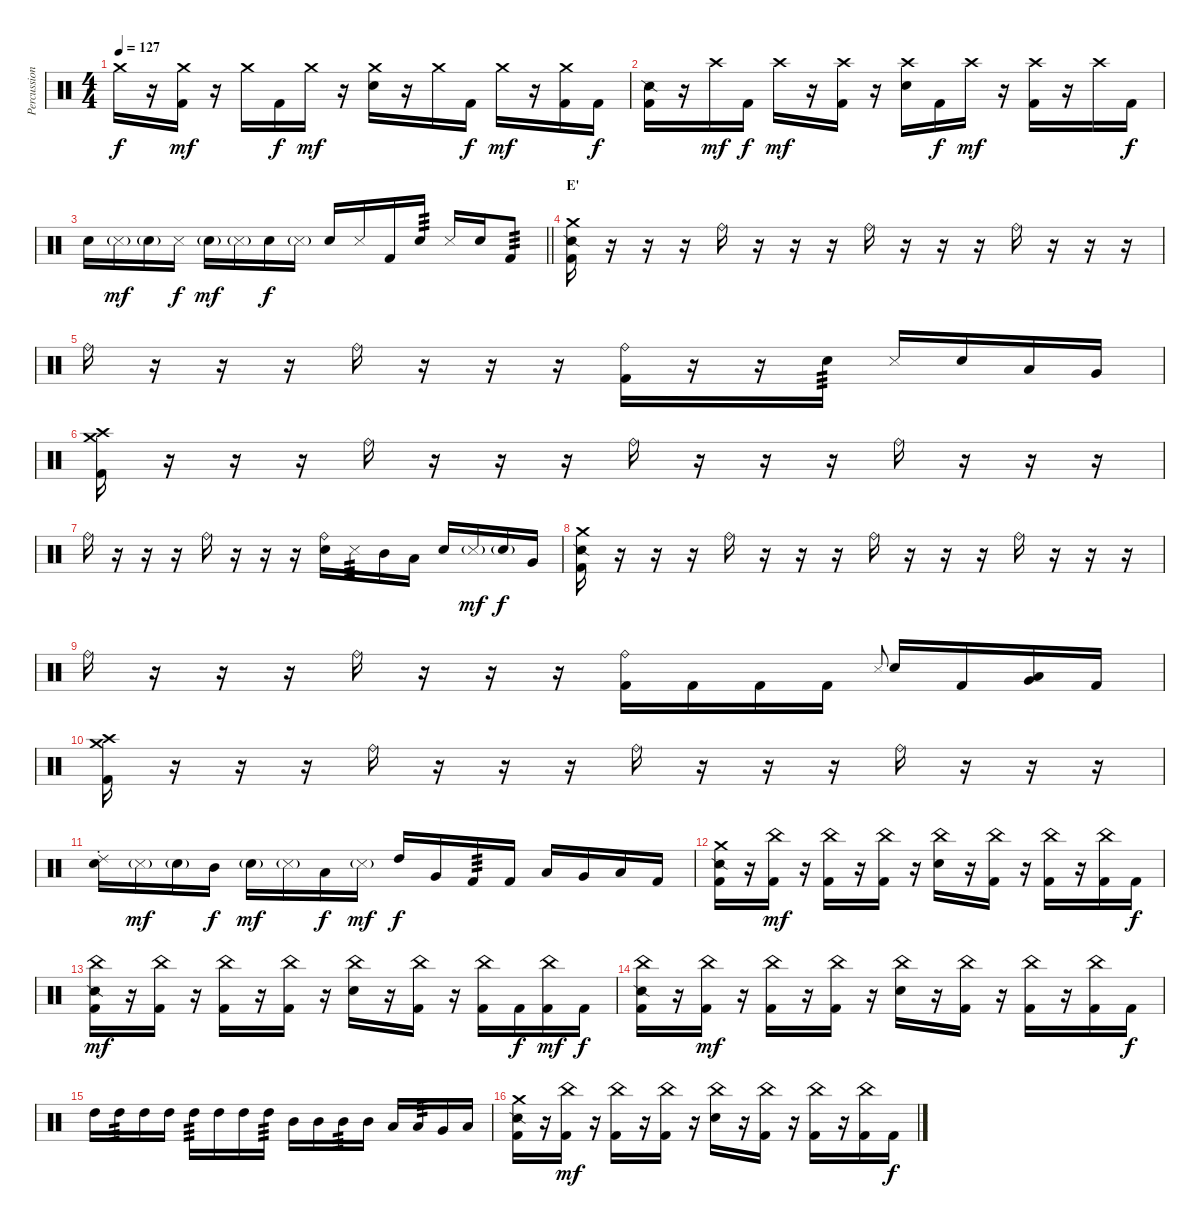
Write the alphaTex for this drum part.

\track ("Percussion" "Percussion") {instrument percussion}
\staff {score}
\articulation defaults
\ts (4 4)
\tempo 127
\clef neutral
\ks c "Crash medium (hit)".16{dy f}
r.16 ("Crash medium (hit)" "Kick (hit) 2").16{dy mf} r.16 "Crash medium (hit)".16 "Kick (hit) 2".16{dy f} "Crash medium (hit)".16{dy mf} r.16 ("Crash medium (hit)" "Snare (hit) 2").16 r.16 "Crash medium (hit)".16 "Kick (hit) 2".16{dy f} "Crash medium (hit)".16{dy mf} r.16 ("Crash medium (hit)" "Kick (hit) 2").16 "Kick (hit) 2".16{dy f} |
("Snare (side stick) 2" "Kick (hit) 2").16 r.16 "Crash high (hit)".16{dy mf} "Kick (hit) 2".16{dy f} "Crash high (hit)".16{dy mf} r.16 ("Crash high (hit)" "Kick (hit) 2").16 r.16 ("Crash high (hit)" "Snare (hit) 2").16 "Kick (hit) 2".16{dy f} "Crash high (hit)".16{dy mf} r.16 ("Crash high (hit)" "Kick (hit) 2").16 r.16 "Crash high (hit)".16 "Kick (hit) 2".16{dy f} |
\barLineRight lightlight "Snare (hit) 2".16 "Metronome (hit)"{g}.16{dy mf} "Snare (hit) 2"{g}.16 "Metronome (hit)".16{dy f} "Snare (hit) 2"{g}.16{dy mf} "Metronome (hit)"{g}.16 "Snare (hit) 2".16{dy f} "Metronome (hit)"{g}.16 "Snare (hit) 2".16 "Metronome (hit)".16 "Kick (hit) 2".16 "Snare (hit) 2".16{tp 3} "Metronome (hit)".16 "Snare (hit) 2".16 "Kick (hit) 2".8{tp 3}
|
\section ("" "E'")
("Snare (side stick) 2" "Crash medium (hit)" "Kick (hit) 2").16 r.16 r.16 r.16 "Ride (bell)".16 r.16 r.16 r.16 "Ride (bell)".16 r.16 r.16 r.16 "Ride (bell)".16 r.16 r.16 r.16 |
"Ride (bell)".16 r.16 r.16 r.16 "Ride (bell)".16 r.16 r.16 r.16 ("Ride (bell)" "Kick (hit) 2").16 r.16 r.16 "Snare (hit) 2".16{tp 3} "Metronome (hit)".16 "Snare (hit) 2".16 "Low Tom (hit)".16 "Very Low Tom (hit)".16 |
("Crash high (hit)" "Crash medium (hit)" "Kick (hit) 2").16 r.16 r.16 r.16 "Ride (bell)".16 r.16 r.16 r.16 "Ride (bell)".16 r.16 r.16 r.16 "Ride (bell)".16 r.16 r.16 r.16 |
"Ride (bell)".16 r.16 r.16 r.16 "Ride (bell)".16 r.16 r.16 r.16 ("Ride (bell)" "Snare (hit) 2").16 "Metronome (hit)".16{tp 3} "Mid Tom (hit)".16 "Low Tom (hit)".16 "Snare (hit) 2".16 "Metronome (hit)"{g}.16{dy mf} "Snare (hit) 2"{g}.16{dy f} "Very Low Tom (hit)".16 |
("Snare (side stick) 2" "Crash medium (hit)" "Kick (hit) 2").16 r.16 r.16 r.16 "Ride (bell)".16 r.16 r.16 r.16 "Ride (bell)".16 r.16 r.16 r.16 "Ride (bell)".16 r.16 r.16 r.16 |
"Ride (bell)".16 r.16 r.16 r.16 "Ride (bell)".16 r.16 r.16 r.16 ("Ride (bell)" "Kick (hit) 2").16 "Kick (hit) 2".16 "Kick (hit) 2".16 "Kick (hit) 2".16 "Metronome (hit)".8{gr onbeat} "Snare (hit) 2".16 "Kick (hit) 2".16 ("Low Tom (hit)" "Very Low Tom (hit)").16{bu 60} "Kick (hit) 2".16 |
("Crash high (hit)" "Crash medium (hit)" "Kick (hit) 2").16 r.16 r.16 r.16 "Ride (bell)".16 r.16 r.16 r.16 "Ride (bell)".16 r.16 r.16 r.16 "Ride (bell)".16 r.16 r.16 r.16 |
("Ride (choke) 2" "Snare (hit) 2").16 "Metronome (hit)"{g}.16{dy mf} "Snare (hit) 2"{g}.16 "Mid Tom (hit)".16{dy f} "Snare (hit) 2"{g}.16{dy mf} "Metronome (hit)"{g}.16 "Low Tom (hit)".16{dy f} "Metronome (hit)"{g}.16{dy mf} "High Tom (hit)".16{dy f} "Very Low Tom (hit)".16 "Kick (hit) 2".16{tp 3} "Kick (hit) 2".16 "Low Tom (hit)".16 "Very Low Tom (hit)".16 "Low Floor Tom (hit)".16 "Kick (hit) 2".16 |
("Snare (side stick) 2" "Crash medium (hit)" "Kick (hit) 2").16 r.16 ("China (hit)" "Kick (hit) 2").16{dy mf} r.16 ("China (hit)" "Kick (hit) 2").16 r.16 ("China (hit)" "Kick (hit) 2").16 r.16 ("China (hit)" "Snare (hit) 2").16 r.16 ("China (hit)" "Kick (hit) 2").16 r.16 ("China (hit)" "Kick (hit) 2").16 r.16 ("China (hit)" "Kick (hit) 2").16 "Kick (hit) 2".16{dy f} |
("China (hit)" "Snare (side stick) 2" "Kick (hit) 2").16{dy mf} r.16 ("China (hit)" "Kick (hit) 2").16 r.16 ("China (hit)" "Kick (hit) 2").16 r.16 ("China (hit)" "Kick (hit) 2").16 r.16 ("China (hit)" "Snare (hit) 2").16 r.16 ("China (hit)" "Kick (hit) 2").16 r.16 ("China (hit)" "Kick (hit) 2").16 "Kick (hit) 2".16{dy f} ("China (hit)" "Kick (hit) 2").16{dy mf} "Kick (hit) 2".16{dy f} |
("Snare (side stick) 2" "China (hit)" "Kick (hit) 2").16 r.16 ("China (hit)" "Kick (hit) 2").16{dy mf} r.16 ("China (hit)" "Kick (hit) 2").16 r.16 ("China (hit)" "Kick (hit) 2").16 r.16 ("China (hit)" "Snare (hit) 2").16 r.16 ("China (hit)" "Kick (hit) 2").16 r.16 ("China (hit)" "Kick (hit) 2").16 r.16 ("China (hit)" "Kick (hit) 2").16 "Kick (hit) 2".16{dy f} |
"High Tom (hit)".16 "High Tom (hit)".16{tp 3} "High Tom (hit)".16 "High Tom (hit)".16 "High Tom (hit)".16{tp 3} "High Tom (hit)".16 "High Tom (hit)".16 "High Tom (hit)".16{tp 3} "Mid Tom (hit)".16 "Mid Tom (hit)".16 "Mid Tom (hit)".16{tp 3} "Mid Tom (hit)".16 "Low Tom (hit)".16 "Low Tom (hit)".16{tp 3} "Very Low Tom (hit)".16 "Low Floor Tom (hit)".16 |
("Snare (side stick) 2" "Crash medium (hit)" "Kick (hit) 2").16 r.16 ("China (hit)" "Kick (hit) 2").16{dy mf} r.16 ("China (hit)" "Kick (hit) 2").16 r.16 ("China (hit)" "Kick (hit) 2").16 r.16 ("China (hit)" "Snare (hit) 2").16 r.16 ("China (hit)" "Kick (hit) 2").16 r.16 ("China (hit)" "Kick (hit) 2").16 r.16 ("China (hit)" "Kick (hit) 2").16 "Kick (hit) 2".16{dy f}
